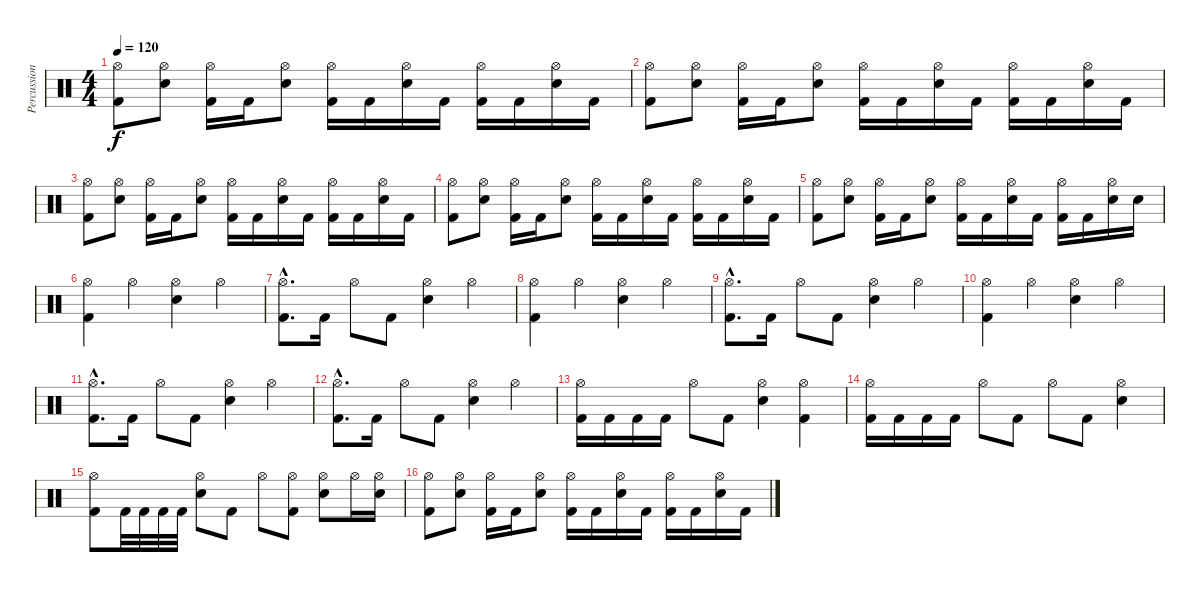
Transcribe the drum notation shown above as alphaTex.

\track ("Percussions" "Percussion") {instrument percussion}
\staff {score}
\articulation defaults
\ts (4 4)
\tempo 120
\clef neutral
\ks c
("Hi-Hat (open)" "Kick (hit) 2").8{dy f} ("Hi-Hat (open)" "Electric Snare (hit)").8 ("Hi-Hat (open)" "Kick (hit) 2").16 "Kick (hit) 2".16 ("Hi-Hat (open)" "Electric Snare (hit)").8 ("Hi-Hat (open)" "Kick (hit) 2").16 "Kick (hit) 2".16 ("Hi-Hat (open)" "Electric Snare (hit)").16 "Kick (hit) 2".16 ("Hi-Hat (open)" "Kick (hit) 2").16 "Kick (hit) 2".16 ("Hi-Hat (open)" "Electric Snare (hit)").16 "Kick (hit) 2".16 |
("Hi-Hat (open)" "Kick (hit) 2").8 ("Hi-Hat (open)" "Electric Snare (hit)").8 ("Hi-Hat (open)" "Kick (hit) 2").16 "Kick (hit) 2".16 ("Hi-Hat (open)" "Electric Snare (hit)").8 ("Hi-Hat (open)" "Kick (hit) 2").16 "Kick (hit) 2".16 ("Hi-Hat (open)" "Electric Snare (hit)").16 "Kick (hit) 2".16 ("Hi-Hat (open)" "Kick (hit) 2").16 "Kick (hit) 2".16 ("Hi-Hat (open)" "Electric Snare (hit)").16 "Kick (hit) 2".16 |
("Hi-Hat (open)" "Kick (hit) 2").8 ("Hi-Hat (open)" "Electric Snare (hit)").8 ("Hi-Hat (open)" "Kick (hit) 2").16 "Kick (hit) 2".16 ("Hi-Hat (open)" "Electric Snare (hit)").8 ("Hi-Hat (open)" "Kick (hit) 2").16 "Kick (hit) 2".16 ("Hi-Hat (open)" "Electric Snare (hit)").16 "Kick (hit) 2".16 ("Hi-Hat (open)" "Kick (hit) 2").16 "Kick (hit) 2".16 ("Hi-Hat (open)" "Electric Snare (hit)").16 "Kick (hit) 2".16 |
("Hi-Hat (open)" "Kick (hit) 2").8 ("Hi-Hat (open)" "Electric Snare (hit)").8 ("Hi-Hat (open)" "Kick (hit) 2").16 "Kick (hit) 2".16 ("Hi-Hat (open)" "Electric Snare (hit)").8 ("Hi-Hat (open)" "Kick (hit) 2").16 "Kick (hit) 2".16 ("Hi-Hat (open)" "Electric Snare (hit)").16 "Kick (hit) 2".16 ("Hi-Hat (open)" "Kick (hit) 2").16 "Kick (hit) 2".16 ("Hi-Hat (open)" "Electric Snare (hit)").16 "Kick (hit) 2".16 |
("Hi-Hat (open)" "Kick (hit) 2").8 ("Hi-Hat (open)" "Electric Snare (hit)").8 ("Hi-Hat (open)" "Kick (hit) 2").16 "Kick (hit) 2".16 ("Hi-Hat (open)" "Electric Snare (hit)").8 ("Hi-Hat (open)" "Kick (hit) 2").16 "Kick (hit) 2".16 ("Hi-Hat (open)" "Electric Snare (hit)").16 "Kick (hit) 2".16 ("Hi-Hat (open)" "Kick (hit) 2").16 "Kick (hit) 2".16 ("Hi-Hat (open)" "Electric Snare (hit)").16 "Electric Snare (hit)".16 |
("Hi-Hat (open)" "Kick (hit) 2").4 "Hi-Hat (open)".4 ("Hi-Hat (open)" "Electric Snare (hit)").4 "Hi-Hat (open)".4 |
("Hi-Hat (open)"{hac} "Kick (hit) 2"{hac}).8{d} "Kick (hit) 2".16 "Hi-Hat (open)".8 "Kick (hit) 2".8 ("Hi-Hat (open)" "Electric Snare (hit)").4 "Hi-Hat (open)".4 |
("Hi-Hat (open)" "Kick (hit) 2").4 "Hi-Hat (open)".4 ("Hi-Hat (open)" "Electric Snare (hit)").4 "Hi-Hat (open)".4 |
("Hi-Hat (open)"{hac} "Kick (hit) 2"{hac}).8{d} "Kick (hit) 2".16 "Hi-Hat (open)".8 "Kick (hit) 2".8 ("Hi-Hat (open)" "Electric Snare (hit)").4 "Hi-Hat (open)".4 |
("Hi-Hat (open)" "Kick (hit) 2").4 "Hi-Hat (open)".4 ("Hi-Hat (open)" "Electric Snare (hit)").4 "Hi-Hat (open)".4 |
("Hi-Hat (open)"{hac} "Kick (hit) 2"{hac}).8{d} "Kick (hit) 2".16 "Hi-Hat (open)".8 "Kick (hit) 2".8 ("Hi-Hat (open)" "Electric Snare (hit)").4 "Hi-Hat (open)".4 |
("Hi-Hat (open)"{hac} "Kick (hit) 2"{hac}).8{d} "Kick (hit) 2".16 "Hi-Hat (open)".8 "Kick (hit) 2".8 ("Hi-Hat (open)" "Electric Snare (hit)").4 "Hi-Hat (open)".4 |
("Hi-Hat (open)" "Kick (hit) 2").16 "Kick (hit) 2".16 "Kick (hit) 2".16 "Kick (hit) 2".16 "Hi-Hat (open)".8 "Kick (hit) 2".8 ("Hi-Hat (open)" "Electric Snare (hit)").4 ("Hi-Hat (open)" "Kick (hit) 2").4 |
("Hi-Hat (open)" "Kick (hit) 2").16 "Kick (hit) 2".16 "Kick (hit) 2".16 "Kick (hit) 2".16 "Hi-Hat (open)".8 "Kick (hit) 2".8 "Hi-Hat (open)".8 "Kick (hit) 2".8 ("Hi-Hat (open)" "Electric Snare (hit)").4 |
("Hi-Hat (open)" "Kick (hit) 2").8 "Kick (hit) 2".32 "Kick (hit) 2".32 "Kick (hit) 2".32 "Kick (hit) 2".32 ("Hi-Hat (open)" "Electric Snare (hit)").8 "Kick (hit) 2".8 "Hi-Hat (open)".8 ("Hi-Hat (open)" "Kick (hit) 2").8 ("Hi-Hat (open)" "Electric Snare (hit)").8 "Hi-Hat (open)".16 ("Hi-Hat (open)" "Electric Snare (hit)").16 |
("Hi-Hat (open)" "Kick (hit) 2").8 ("Hi-Hat (open)" "Electric Snare (hit)").8 ("Hi-Hat (open)" "Kick (hit) 2").16 "Kick (hit) 2".16 ("Hi-Hat (open)" "Electric Snare (hit)").8 ("Hi-Hat (open)" "Kick (hit) 2").16 "Kick (hit) 2".16 ("Hi-Hat (open)" "Electric Snare (hit)").16 "Kick (hit) 2".16 ("Hi-Hat (open)" "Kick (hit) 2").16 "Kick (hit) 2".16 ("Hi-Hat (open)" "Electric Snare (hit)").16 "Kick (hit) 2".16
